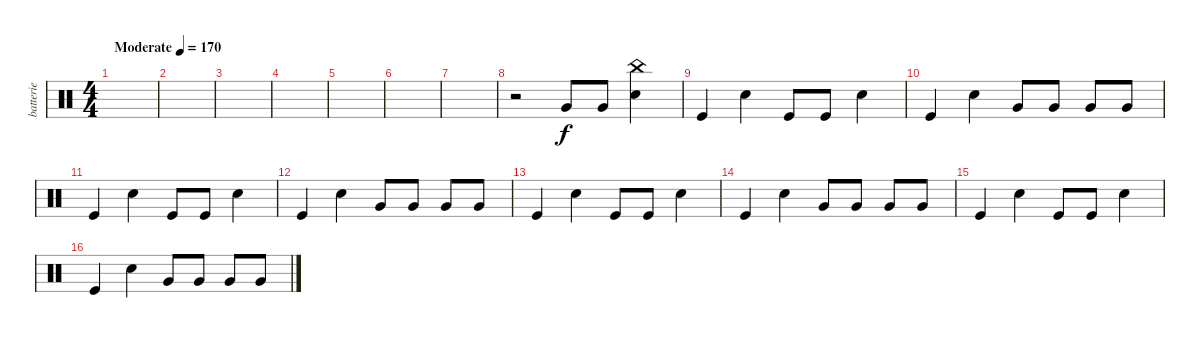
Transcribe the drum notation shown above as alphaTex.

\track ("batterie " "batterie ") {instrument percussion}
\staff {score}
\articulation defaults
\ts (4 4)
\tempo (170 "Moderate")
\clef neutral
\ks c
|
|
|
|
|
|
|
r.2 "Very Low Tom (hit)".8 "Very Low Tom (hit)".8 ("China (hit)" "Snare (hit) 2").4 |
"Kick (hit)".4 "Snare (hit) 2".4 "Kick (hit)".8 "Kick (hit)".8 "Snare (hit) 2".4 |
"Kick (hit)".4 "Snare (hit) 2".4 "Very Low Tom (hit)".8 "Very Low Tom (hit)".8 "Very Low Tom (hit)".8 "Very Low Tom (hit)".8 |
"Kick (hit)".4 "Snare (hit) 2".4 "Kick (hit)".8 "Kick (hit)".8 "Snare (hit) 2".4 |
"Kick (hit)".4 "Snare (hit) 2".4 "Very Low Tom (hit)".8 "Very Low Tom (hit)".8 "Very Low Tom (hit)".8 "Very Low Tom (hit)".8 |
"Kick (hit)".4 "Snare (hit) 2".4 "Kick (hit)".8 "Kick (hit)".8 "Snare (hit) 2".4 |
"Kick (hit)".4 "Snare (hit) 2".4 "Very Low Tom (hit)".8 "Very Low Tom (hit)".8 "Very Low Tom (hit)".8 "Very Low Tom (hit)".8 |
"Kick (hit)".4 "Snare (hit) 2".4 "Kick (hit)".8 "Kick (hit)".8 "Snare (hit) 2".4 |
"Kick (hit)".4 "Snare (hit) 2".4 "Very Low Tom (hit)".8 "Very Low Tom (hit)".8 "Very Low Tom (hit)".8 "Very Low Tom (hit)".8
